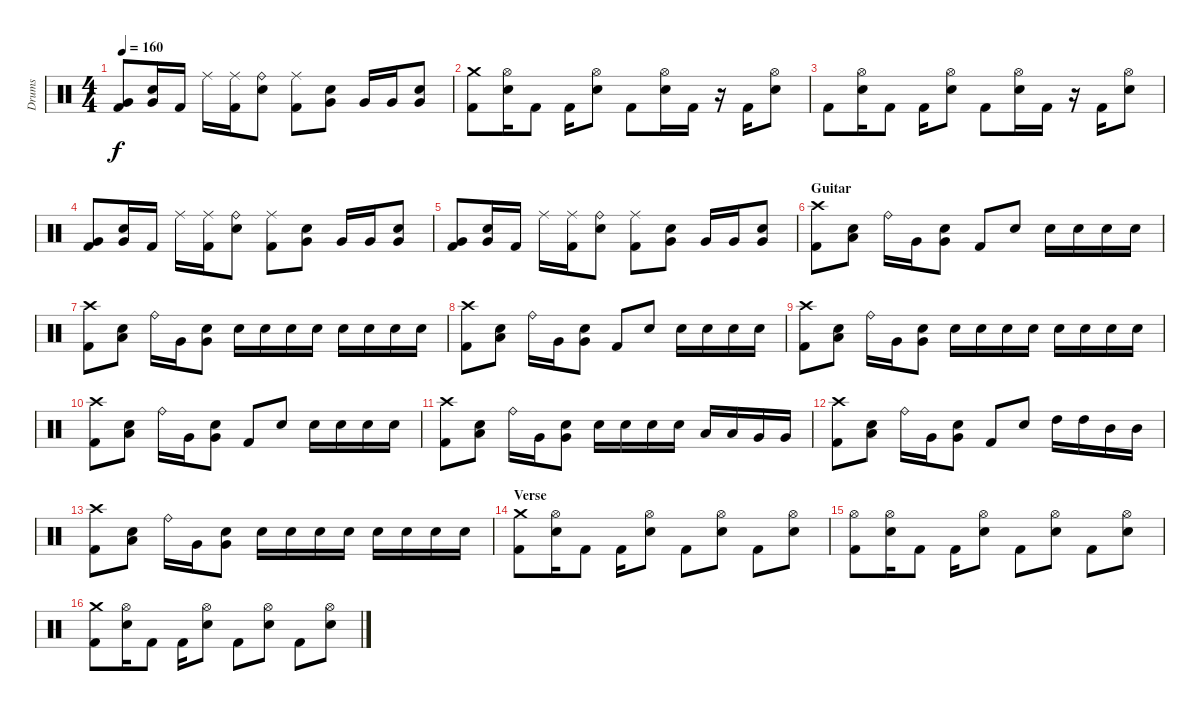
\track ("Drums" "Drums") {instrument percussion}
\staff {score}
\articulation defaults
\ts (4 4)
\tempo 160
\clef neutral
\ks c
("Kick (hit) 2" "Very Low Tom (hit)").8{dy f} ("Electric Snare (hit)" "Very Low Tom (hit)").16 "Kick (hit) 2".16 "Ride (middle)".16 ("Kick (hit) 2" "Ride (middle)").16 ("Electric Snare (hit)" "Ride (bell)").8 ("Kick (hit) 2" "Ride (middle)").8 ("Electric Snare (hit)" "Very Low Tom (hit)").8 "Very Low Tom (hit)".16 "Very Low Tom (hit)".16 ("Electric Snare (hit)" "Very Low Tom (hit)").8 |
("Kick (hit) 2" "Crash medium (hit)").8 ("Electric Snare (hit)" "Hi-Hat (open)").16 "Kick (hit) 2".8 "Kick (hit) 2".16 ("Electric Snare (hit)" "Hi-Hat (open)").8 "Kick (hit) 2".8 ("Electric Snare (hit)" "Hi-Hat (open)").16 "Kick (hit) 2".16 r.16 "Kick (hit) 2".16 ("Electric Snare (hit)" "Hi-Hat (open)").8 |
"Kick (hit) 2".8 ("Electric Snare (hit)" "Hi-Hat (open)").16 "Kick (hit) 2".8 "Kick (hit) 2".16 ("Electric Snare (hit)" "Hi-Hat (open)").8 "Kick (hit) 2".8 ("Electric Snare (hit)" "Hi-Hat (open)").16 "Kick (hit) 2".16 r.16 "Kick (hit) 2".16 ("Electric Snare (hit)" "Hi-Hat (open)").8 |
("Kick (hit) 2" "Very Low Tom (hit)").8 ("Electric Snare (hit)" "Very Low Tom (hit)").16 "Kick (hit) 2".16 "Ride (middle)".16 ("Kick (hit) 2" "Ride (middle)").16 ("Electric Snare (hit)" "Ride (bell)").8 ("Kick (hit) 2" "Ride (middle)").8 ("Electric Snare (hit)" "Very Low Tom (hit)").8 "Very Low Tom (hit)".16 "Very Low Tom (hit)".16 ("Electric Snare (hit)" "Very Low Tom (hit)").8 |
("Kick (hit) 2" "Very Low Tom (hit)").8 ("Electric Snare (hit)" "Very Low Tom (hit)").16 "Kick (hit) 2".16 "Ride (middle)".16 ("Kick (hit) 2" "Ride (middle)").16 ("Electric Snare (hit)" "Ride (bell)").8 ("Kick (hit) 2" "Ride (middle)").8 ("Electric Snare (hit)" "Very Low Tom (hit)").8 "Very Low Tom (hit)".16 "Very Low Tom (hit)".16 ("Electric Snare (hit)" "Very Low Tom (hit)").8 |
\section ("" "Guitar")
("Kick (hit) 2" "Crash high (hit)").8 ("Low Floor Tom (hit)" "Electric Snare (hit)").8 "Ride (bell)".16 "Very Low Tom (hit)".16 ("Very Low Tom (hit)" "Electric Snare (hit)").8 "Kick (hit) 2".8 "Electric Snare (hit)".8 "Electric Snare (hit)".16 "Electric Snare (hit)".16 "Electric Snare (hit)".16 "Electric Snare (hit)".16 |
("Kick (hit) 2" "Crash high (hit)").8 ("Low Floor Tom (hit)" "Electric Snare (hit)").8 "Ride (bell)".16 "Very Low Tom (hit)".16 ("Very Low Tom (hit)" "Electric Snare (hit)").8 "Electric Snare (hit)".16 "Electric Snare (hit)".16 "Electric Snare (hit)".16 "Electric Snare (hit)".16 "Electric Snare (hit)".16 "Electric Snare (hit)".16 "Electric Snare (hit)".16 "Electric Snare (hit)".16 |
("Kick (hit) 2" "Crash high (hit)").8 ("Low Floor Tom (hit)" "Electric Snare (hit)").8 "Ride (bell)".16 "Very Low Tom (hit)".16 ("Very Low Tom (hit)" "Electric Snare (hit)").8 "Kick (hit) 2".8 "Electric Snare (hit)".8 "Electric Snare (hit)".16 "Electric Snare (hit)".16 "Electric Snare (hit)".16 "Electric Snare (hit)".16 |
("Kick (hit) 2" "Crash high (hit)").8 ("Low Floor Tom (hit)" "Electric Snare (hit)").8 "Ride (bell)".16 "Very Low Tom (hit)".16 ("Very Low Tom (hit)" "Electric Snare (hit)").8 "Electric Snare (hit)".16 "Electric Snare (hit)".16 "Electric Snare (hit)".16 "Electric Snare (hit)".16 "Electric Snare (hit)".16 "Electric Snare (hit)".16 "Electric Snare (hit)".16 "Electric Snare (hit)".16 |
("Kick (hit) 2" "Crash high (hit)").8 ("Low Floor Tom (hit)" "Electric Snare (hit)").8 "Ride (bell)".16 "Very Low Tom (hit)".16 ("Very Low Tom (hit)" "Electric Snare (hit)").8 "Kick (hit) 2".8 "Electric Snare (hit)".8 "Electric Snare (hit)".16 "Electric Snare (hit)".16 "Electric Snare (hit)".16 "Electric Snare (hit)".16 |
("Kick (hit) 2" "Crash high (hit)").8 ("Low Floor Tom (hit)" "Electric Snare (hit)").8 "Ride (bell)".16 "Very Low Tom (hit)".16 ("Very Low Tom (hit)" "Electric Snare (hit)").8 "Electric Snare (hit)".16 "Electric Snare (hit)".16 "Electric Snare (hit)".16 "Electric Snare (hit)".16 "Low Tom (hit)".16 "Low Tom (hit)".16 "Very Low Tom (hit)".16 "Very Low Tom (hit)".16 |
("Kick (hit) 2" "Crash high (hit)").8 ("Low Floor Tom (hit)" "Electric Snare (hit)").8 "Ride (bell)".16 "Very Low Tom (hit)".16 ("Very Low Tom (hit)" "Electric Snare (hit)").8 "Kick (hit) 2".8 "Electric Snare (hit)".8 "High Tom (hit)".16 "High Tom (hit)".16 "Mid Tom (hit)".16 "Mid Tom (hit)".16 |
("Kick (hit) 2" "Crash high (hit)").8 ("Low Floor Tom (hit)" "Electric Snare (hit)").8 "Ride (bell)".16 "Very Low Tom (hit)".16 ("Very Low Tom (hit)" "Electric Snare (hit)").8 "Electric Snare (hit)".16 "Electric Snare (hit)".16 "Electric Snare (hit)".16 "Electric Snare (hit)".16 "Electric Snare (hit)".16 "Electric Snare (hit)".16 "Electric Snare (hit)".16 "Electric Snare (hit)".16 |
\section ("" "Verse")
("Kick (hit) 2" "Crash medium (hit)").8 ("Electric Snare (hit)" "Hi-Hat (open)").16 "Kick (hit) 2".8 "Kick (hit) 2".16 ("Electric Snare (hit)" "Hi-Hat (open)").8 "Kick (hit) 2".8 ("Electric Snare (hit)" "Hi-Hat (open)").8 "Kick (hit) 2".8 ("Electric Snare (hit)" "Hi-Hat (open)").8 |
("Kick (hit) 2" "Hi-Hat (open)").8 ("Electric Snare (hit)" "Hi-Hat (open)").16 "Kick (hit) 2".8 "Kick (hit) 2".16 ("Electric Snare (hit)" "Hi-Hat (open)").8 "Kick (hit) 2".8 ("Electric Snare (hit)" "Hi-Hat (open)").8 "Kick (hit) 2".8 ("Electric Snare (hit)" "Hi-Hat (open)").8 |
("Kick (hit) 2" "Crash medium (hit)").8 ("Electric Snare (hit)" "Hi-Hat (open)").16 "Kick (hit) 2".8 "Kick (hit) 2".16 ("Electric Snare (hit)" "Hi-Hat (open)").8 "Kick (hit) 2".8 ("Electric Snare (hit)" "Hi-Hat (open)").8 "Kick (hit) 2".8 ("Electric Snare (hit)" "Hi-Hat (open)").8
